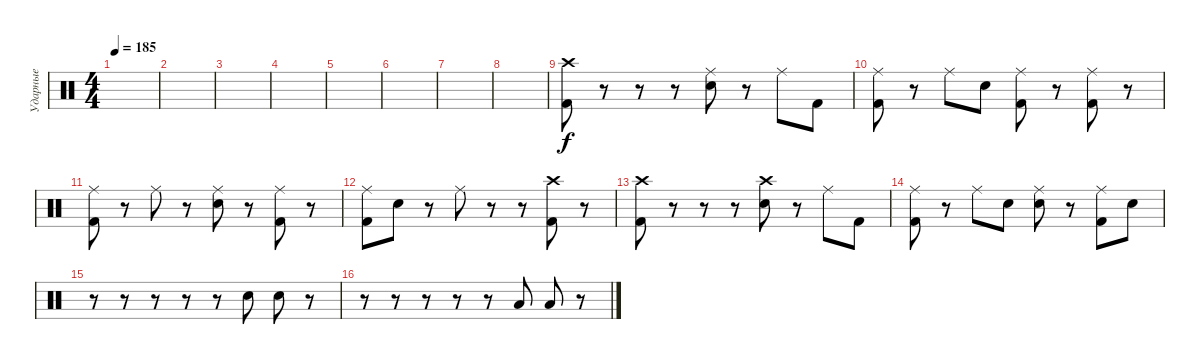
\track ("Ударные" "Ударные") {instrument percussion}
\staff {score}
\articulation defaults
\ts (4 4)
\tempo 185
\clef neutral
\ks c
|
|
|
|
|
|
|
|
("Kick (hit) 2" "Crash high (hit)").8 r.8 r.8 r.8 ("Electric Snare (hit)" "Ride (middle)").8 r.8 "Ride (middle)".8 "Kick (hit) 2".8 |
("Kick (hit) 2" "Ride (middle)").8 r.8 "Ride (middle)".8 "Electric Snare (hit)".8 ("Kick (hit) 2" "Ride (middle)").8 r.8 ("Kick (hit) 2" "Ride (middle)").8 r.8 |
("Kick (hit) 2" "Ride (middle)").8 r.8 "Ride (middle)".8 r.8 ("Electric Snare (hit)" "Ride (middle)").8 r.8 ("Kick (hit) 2" "Ride (middle)").8 r.8 |
("Kick (hit) 2" "Ride (middle)").8 "Electric Snare (hit)".8 r.8 "Ride (middle)".8 r.8 r.8 ("Kick (hit) 2" "Crash high (hit)").8 r.8 |
("Kick (hit) 2" "Crash high (hit)").8 r.8 r.8 r.8 ("Electric Snare (hit)" "Crash high (hit)").8 r.8 "Ride (middle)".8 "Kick (hit) 2".8 |
("Kick (hit) 2" "Ride (middle)").8 r.8 "Ride (middle)".8 "Electric Snare (hit)".8 ("Electric Snare (hit)" "Ride (middle)").8 r.8 ("Kick (hit) 2" "Ride (middle)").8 "Electric Snare (hit)".8 |
r.8 r.8 r.8 r.8 r.8 "Electric Snare (hit)".8 "Electric Snare (hit)".8 r.8 |
r.8 r.8 r.8 r.8 r.8 "Low Tom (hit)".8 "Low Tom (hit)".8 r.8
